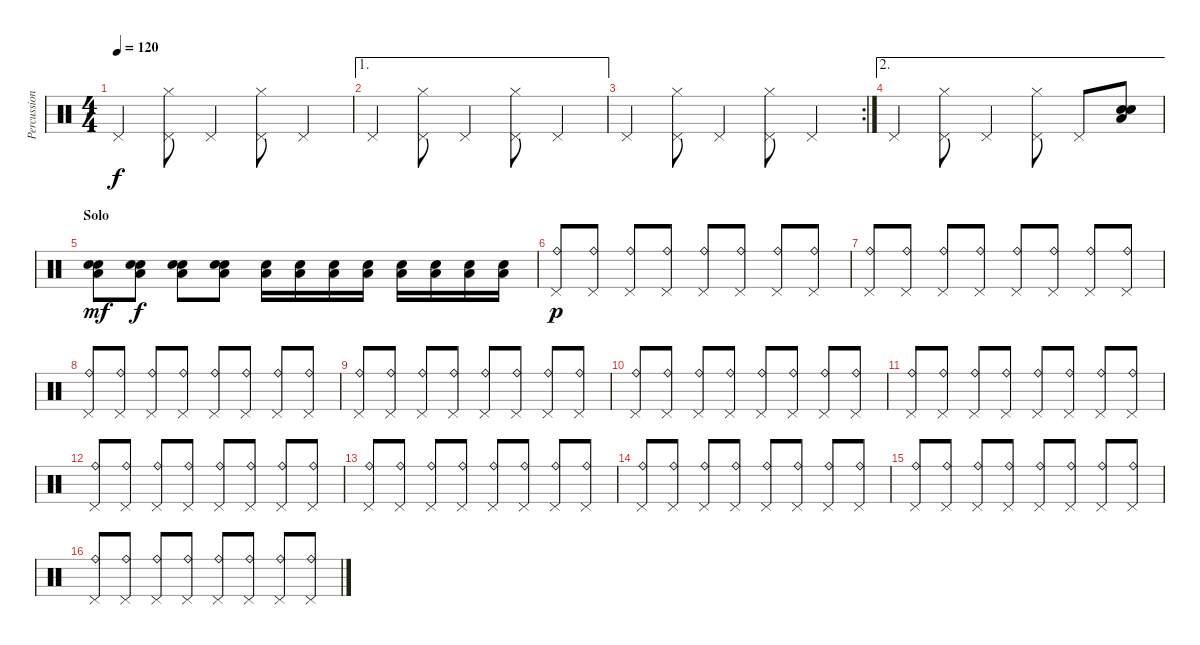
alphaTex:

\track ("Percussion 2" "Percussion") {instrument percussion}
\staff {score}
\articulation defaults
\ts (4 4)
\tempo 120
\clef neutral
\ks c "Pedal Hi-Hat (hit)".4{dy f}
("Hi-Hat (closed)" "Pedal Hi-Hat (hit)").8 "Pedal Hi-Hat (hit)".4 ("Hi-Hat (closed)" "Pedal Hi-Hat (hit)").8 "Pedal Hi-Hat (hit)".4 |
\ae 1 "Pedal Hi-Hat (hit)".4
("Hi-Hat (closed)" "Pedal Hi-Hat (hit)").8 "Pedal Hi-Hat (hit)".4 ("Hi-Hat (closed)" "Pedal Hi-Hat (hit)").8 "Pedal Hi-Hat (hit)".4 |
\rc 2 "Pedal Hi-Hat (hit)".4
("Hi-Hat (closed)" "Pedal Hi-Hat (hit)").8 "Pedal Hi-Hat (hit)".4 ("Hi-Hat (closed)" "Pedal Hi-Hat (hit)").8 "Pedal Hi-Hat (hit)".4 |
\ae 2 "Pedal Hi-Hat (hit)".4
("Hi-Hat (closed)" "Pedal Hi-Hat (hit)").8 "Pedal Hi-Hat (hit)".4 ("Hi-Hat (closed)" "Pedal Hi-Hat (hit)").8 "Pedal Hi-Hat (hit)".8 ("Electric Snare (hit)" "Low Tom (hit)" "Snare (hit) 2").8 |
\section ("" "Solo")
("Electric Snare (hit)" "Low Tom (hit)" "Snare (hit) 2").8{dy mf} ("Electric Snare (hit)" "Low Tom (hit)" "Snare (hit) 2").8{dy f} ("Electric Snare (hit)" "Low Tom (hit)" "Snare (hit) 2").8 ("Electric Snare (hit)" "Low Tom (hit)" "Snare (hit) 2").8 ("Electric Snare (hit)" "Low Tom (hit)").16 ("Electric Snare (hit)" "Low Tom (hit)").16 ("Electric Snare (hit)" "Low Tom (hit)").16 ("Electric Snare (hit)" "Low Tom (hit)").16 ("Electric Snare (hit)" "Low Tom (hit)").16 ("Electric Snare (hit)" "Low Tom (hit)").16 ("Electric Snare (hit)" "Low Tom (hit)").16 ("Electric Snare (hit)" "Low Tom (hit)").16 |
("Pedal Hi-Hat (hit)" "Ride (bell)").8{dy p volume 12} ("Pedal Hi-Hat (hit)" "Ride (bell)").8 ("Pedal Hi-Hat (hit)" "Ride (bell)").8 ("Pedal Hi-Hat (hit)" "Ride (bell)").8 ("Pedal Hi-Hat (hit)" "Ride (bell)").8 ("Pedal Hi-Hat (hit)" "Ride (bell)").8 ("Pedal Hi-Hat (hit)" "Ride (bell)").8 ("Pedal Hi-Hat (hit)" "Ride (bell)").8 |
("Pedal Hi-Hat (hit)" "Ride (bell)").8 ("Pedal Hi-Hat (hit)" "Ride (bell)").8 ("Pedal Hi-Hat (hit)" "Ride (bell)").8 ("Pedal Hi-Hat (hit)" "Ride (bell)").8 ("Pedal Hi-Hat (hit)" "Ride (bell)").8 ("Pedal Hi-Hat (hit)" "Ride (bell)").8 ("Pedal Hi-Hat (hit)" "Ride (bell)").8 ("Pedal Hi-Hat (hit)" "Ride (bell)").8 |
("Pedal Hi-Hat (hit)" "Ride (bell)").8 ("Pedal Hi-Hat (hit)" "Ride (bell)").8 ("Pedal Hi-Hat (hit)" "Ride (bell)").8 ("Pedal Hi-Hat (hit)" "Ride (bell)").8 ("Pedal Hi-Hat (hit)" "Ride (bell)").8 ("Pedal Hi-Hat (hit)" "Ride (bell)").8 ("Pedal Hi-Hat (hit)" "Ride (bell)").8 ("Pedal Hi-Hat (hit)" "Ride (bell)").8 |
("Pedal Hi-Hat (hit)" "Ride (bell)").8 ("Pedal Hi-Hat (hit)" "Ride (bell)").8 ("Pedal Hi-Hat (hit)" "Ride (bell)").8 ("Pedal Hi-Hat (hit)" "Ride (bell)").8 ("Pedal Hi-Hat (hit)" "Ride (bell)").8 ("Pedal Hi-Hat (hit)" "Ride (bell)").8 ("Pedal Hi-Hat (hit)" "Ride (bell)").8 ("Pedal Hi-Hat (hit)" "Ride (bell)").8 |
("Pedal Hi-Hat (hit)" "Ride (bell)").8 ("Pedal Hi-Hat (hit)" "Ride (bell)").8 ("Pedal Hi-Hat (hit)" "Ride (bell)").8 ("Pedal Hi-Hat (hit)" "Ride (bell)").8 ("Pedal Hi-Hat (hit)" "Ride (bell)").8 ("Pedal Hi-Hat (hit)" "Ride (bell)").8 ("Pedal Hi-Hat (hit)" "Ride (bell)").8 ("Pedal Hi-Hat (hit)" "Ride (bell)").8 |
("Pedal Hi-Hat (hit)" "Ride (bell)").8 ("Pedal Hi-Hat (hit)" "Ride (bell)").8 ("Pedal Hi-Hat (hit)" "Ride (bell)").8 ("Pedal Hi-Hat (hit)" "Ride (bell)").8 ("Pedal Hi-Hat (hit)" "Ride (bell)").8 ("Pedal Hi-Hat (hit)" "Ride (bell)").8 ("Pedal Hi-Hat (hit)" "Ride (bell)").8 ("Pedal Hi-Hat (hit)" "Ride (bell)").8 |
("Pedal Hi-Hat (hit)" "Ride (bell)").8 ("Pedal Hi-Hat (hit)" "Ride (bell)").8 ("Pedal Hi-Hat (hit)" "Ride (bell)").8 ("Pedal Hi-Hat (hit)" "Ride (bell)").8 ("Pedal Hi-Hat (hit)" "Ride (bell)").8 ("Pedal Hi-Hat (hit)" "Ride (bell)").8 ("Pedal Hi-Hat (hit)" "Ride (bell)").8 ("Pedal Hi-Hat (hit)" "Ride (bell)").8 |
("Pedal Hi-Hat (hit)" "Ride (bell)").8 ("Pedal Hi-Hat (hit)" "Ride (bell)").8 ("Pedal Hi-Hat (hit)" "Ride (bell)").8 ("Pedal Hi-Hat (hit)" "Ride (bell)").8 ("Pedal Hi-Hat (hit)" "Ride (bell)").8 ("Pedal Hi-Hat (hit)" "Ride (bell)").8 ("Pedal Hi-Hat (hit)" "Ride (bell)").8 ("Pedal Hi-Hat (hit)" "Ride (bell)").8 |
("Pedal Hi-Hat (hit)" "Ride (bell)").8 ("Pedal Hi-Hat (hit)" "Ride (bell)").8 ("Pedal Hi-Hat (hit)" "Ride (bell)").8 ("Pedal Hi-Hat (hit)" "Ride (bell)").8 ("Pedal Hi-Hat (hit)" "Ride (bell)").8 ("Pedal Hi-Hat (hit)" "Ride (bell)").8 ("Pedal Hi-Hat (hit)" "Ride (bell)").8 ("Pedal Hi-Hat (hit)" "Ride (bell)").8 |
("Pedal Hi-Hat (hit)" "Ride (bell)").8 ("Pedal Hi-Hat (hit)" "Ride (bell)").8 ("Pedal Hi-Hat (hit)" "Ride (bell)").8 ("Pedal Hi-Hat (hit)" "Ride (bell)").8 ("Pedal Hi-Hat (hit)" "Ride (bell)").8 ("Pedal Hi-Hat (hit)" "Ride (bell)").8 ("Pedal Hi-Hat (hit)" "Ride (bell)").8 ("Pedal Hi-Hat (hit)" "Ride (bell)").8 |
("Pedal Hi-Hat (hit)" "Ride (bell)").8 ("Pedal Hi-Hat (hit)" "Ride (bell)").8 ("Pedal Hi-Hat (hit)" "Ride (bell)").8 ("Pedal Hi-Hat (hit)" "Ride (bell)").8 ("Pedal Hi-Hat (hit)" "Ride (bell)").8 ("Pedal Hi-Hat (hit)" "Ride (bell)").8 ("Pedal Hi-Hat (hit)" "Ride (bell)").8 ("Pedal Hi-Hat (hit)" "Ride (bell)").8
